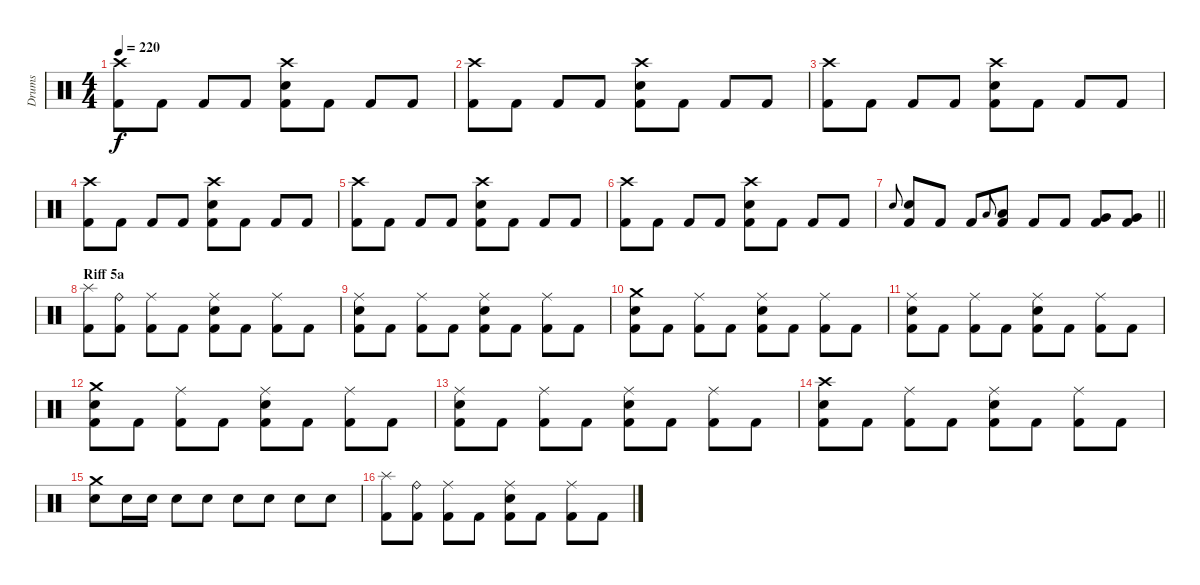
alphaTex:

\track ("Drums" "Drums") {instrument percussion}
\staff {score}
\articulation defaults
\ts (4 4)
\tempo 220
\clef neutral
\ks c
("Crash high (hit)" "Kick (hit) 2").8{dy f} "Kick (hit) 2".8 "Kick (hit) 2".8 "Kick (hit) 2".8 ("Crash high (hit)" "Electric Snare (hit)" "Kick (hit) 2").8 "Kick (hit) 2".8 "Kick (hit) 2".8 "Kick (hit) 2".8 |
("Crash high (hit)" "Kick (hit) 2").8 "Kick (hit) 2".8 "Kick (hit) 2".8 "Kick (hit) 2".8 ("Crash high (hit)" "Electric Snare (hit)" "Kick (hit) 2").8 "Kick (hit) 2".8 "Kick (hit) 2".8 "Kick (hit) 2".8 |
("Crash high (hit)" "Kick (hit) 2").8 "Kick (hit) 2".8 "Kick (hit) 2".8 "Kick (hit) 2".8 ("Crash high (hit)" "Electric Snare (hit)" "Kick (hit) 2").8 "Kick (hit) 2".8 "Kick (hit) 2".8 "Kick (hit) 2".8 |
("Crash high (hit)" "Kick (hit) 2").8 "Kick (hit) 2".8 "Kick (hit) 2".8 "Kick (hit) 2".8 ("Crash high (hit)" "Electric Snare (hit)" "Kick (hit) 2").8 "Kick (hit) 2".8 "Kick (hit) 2".8 "Kick (hit) 2".8 |
("Crash high (hit)" "Kick (hit) 2").8 "Kick (hit) 2".8 "Kick (hit) 2".8 "Kick (hit) 2".8 ("Crash high (hit)" "Electric Snare (hit)" "Kick (hit) 2").8 "Kick (hit) 2".8 "Kick (hit) 2".8 "Kick (hit) 2".8 |
("Crash high (hit)" "Kick (hit) 2").8 "Kick (hit) 2".8 "Kick (hit) 2".8 "Kick (hit) 2".8 ("Crash high (hit)" "Electric Snare (hit)" "Kick (hit) 2").8 "Kick (hit) 2".8 "Kick (hit) 2".8 "Kick (hit) 2".8 |
\barLineRight lightlight "Electric Snare (hit)".8{gr onbeat}
("Kick (hit) 2" "Electric Snare (hit)").8 "Kick (hit) 2".8 "Kick (hit) 2".8 "Low Tom (hit)".8{gr onbeat} ("Kick (hit) 2" "Low Tom (hit)").8 "Kick (hit) 2".8 "Kick (hit) 2".8 ("Kick (hit) 2" "Very Low Tom (hit)").8 ("Kick (hit) 2" "Very Low Tom (hit)").8 |
\section ("" "Riff 5a")
("Splash (hit)" "Kick (hit) 2").8 ("Ride (bell)" "Kick (hit) 2").8 ("Ride (middle)" "Kick (hit) 2").8 "Kick (hit) 2".8 ("Ride (middle)" "Electric Snare (hit)" "Kick (hit) 2").8 "Kick (hit) 2".8 ("Ride (middle)" "Kick (hit) 2").8 "Kick (hit) 2".8 |
("Ride (middle)" "Electric Snare (hit)" "Kick (hit) 2").8 "Kick (hit) 2".8 ("Ride (middle)" "Kick (hit) 2").8 "Kick (hit) 2".8 ("Ride (middle)" "Electric Snare (hit)" "Kick (hit) 2").8 "Kick (hit) 2".8 ("Ride (middle)" "Kick (hit) 2").8 "Kick (hit) 2".8 |
("Crash medium (hit)" "Electric Snare (hit)" "Kick (hit) 2").8 "Kick (hit) 2".8 ("Ride (middle)" "Kick (hit) 2").8 "Kick (hit) 2".8 ("Ride (middle)" "Electric Snare (hit)" "Kick (hit) 2").8 "Kick (hit) 2".8 ("Ride (middle)" "Kick (hit) 2").8 "Kick (hit) 2".8 |
("Ride (middle)" "Electric Snare (hit)" "Kick (hit) 2").8 "Kick (hit) 2".8 ("Ride (middle)" "Kick (hit) 2").8 "Kick (hit) 2".8 ("Ride (middle)" "Electric Snare (hit)" "Kick (hit) 2").8 "Kick (hit) 2".8 ("Ride (middle)" "Kick (hit) 2").8 "Kick (hit) 2".8 |
("Crash medium (hit)" "Electric Snare (hit)" "Kick (hit) 2").8 "Kick (hit) 2".8 ("Ride (middle)" "Kick (hit) 2").8 "Kick (hit) 2".8 ("Ride (middle)" "Electric Snare (hit)" "Kick (hit) 2").8 "Kick (hit) 2".8 ("Ride (middle)" "Kick (hit) 2").8 "Kick (hit) 2".8 |
("Ride (middle)" "Electric Snare (hit)" "Kick (hit) 2").8 "Kick (hit) 2".8 ("Ride (middle)" "Kick (hit) 2").8 "Kick (hit) 2".8 ("Ride (middle)" "Electric Snare (hit)" "Kick (hit) 2").8 "Kick (hit) 2".8 ("Ride (middle)" "Kick (hit) 2").8 "Kick (hit) 2".8 |
("Crash high (hit)" "Electric Snare (hit)" "Kick (hit) 2").8 "Kick (hit) 2".8 ("Ride (middle)" "Kick (hit) 2").8 "Kick (hit) 2".8 ("Ride (middle)" "Electric Snare (hit)" "Kick (hit) 2").8 "Kick (hit) 2".8 ("Ride (middle)" "Kick (hit) 2").8 "Kick (hit) 2".8 |
("Crash medium (hit)" "Electric Snare (hit)").8 "Electric Snare (hit)".16 "Electric Snare (hit)".16 "Electric Snare (hit)".8 "Electric Snare (hit)".8 "Electric Snare (hit)".8 "Electric Snare (hit)".8 "Electric Snare (hit)".8 "Electric Snare (hit)".8 |
("Splash (hit)" "Kick (hit) 2").8 ("Ride (bell)" "Kick (hit) 2").8 ("Ride (middle)" "Kick (hit) 2").8 "Kick (hit) 2".8 ("Ride (middle)" "Electric Snare (hit)" "Kick (hit) 2").8 "Kick (hit) 2".8 ("Ride (middle)" "Kick (hit) 2").8 "Kick (hit) 2".8
